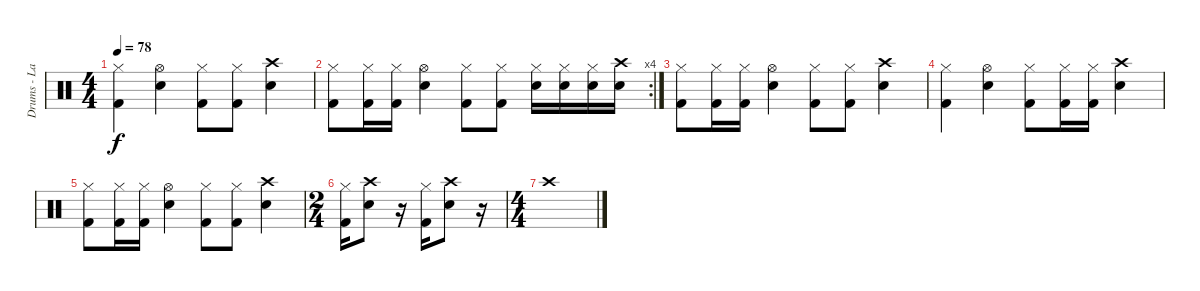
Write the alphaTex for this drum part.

\track ("Drums - Lars" "Drums - La") {instrument percussion}
\staff {score}
\articulation defaults
\ts (4 4)
\tempo 78
\clef neutral
\ks c
("Hi-Hat (closed)" "Kick (hit) 2").4{dy f} ("Hi-Hat (open)" "Electric Snare (hit)").4 ("Hi-Hat (closed)" "Kick (hit) 2").8 ("Hi-Hat (closed)" "Kick (hit) 2").8 ("Crash high (hit)" "Electric Snare (hit)").4 |
\rc 4
("Hi-Hat (closed)" "Kick (hit) 2").8 ("Hi-Hat (closed)" "Kick (hit) 2").16 ("Hi-Hat (closed)" "Kick (hit) 2").16 ("Hi-Hat (open)" "Electric Snare (hit)").4 ("Hi-Hat (closed)" "Kick (hit) 2").8 ("Hi-Hat (closed)" "Kick (hit) 2").8 ("Hi-Hat (closed)" "Electric Snare (hit)").16 ("Hi-Hat (closed)" "Electric Snare (hit)").16 ("Hi-Hat (closed)" "Electric Snare (hit)").16 ("Crash high (hit)" "Electric Snare (hit)").16 |
("Hi-Hat (closed)" "Kick (hit) 2").8 ("Hi-Hat (closed)" "Kick (hit) 2").16 ("Hi-Hat (closed)" "Kick (hit) 2").16 ("Hi-Hat (open)" "Electric Snare (hit)").4 ("Hi-Hat (closed)" "Kick (hit) 2").8 ("Hi-Hat (closed)" "Kick (hit) 2").8 ("Crash high (hit)" "Electric Snare (hit)").4 |
("Hi-Hat (closed)" "Kick (hit) 2").4 ("Hi-Hat (open)" "Electric Snare (hit)").4 ("Hi-Hat (closed)" "Kick (hit) 2").8 ("Hi-Hat (closed)" "Kick (hit) 2").16 ("Hi-Hat (closed)" "Kick (hit) 2").16 ("Crash high (hit)" "Electric Snare (hit)").4 |
("Hi-Hat (closed)" "Kick (hit) 2").8 ("Hi-Hat (closed)" "Kick (hit) 2").16 ("Hi-Hat (closed)" "Kick (hit) 2").16 ("Hi-Hat (open)" "Electric Snare (hit)").4 ("Hi-Hat (closed)" "Kick (hit) 2").8 ("Hi-Hat (closed)" "Kick (hit) 2").8 ("Crash high (hit)" "Electric Snare (hit)").4 |
\ts (2 4)
("Hi-Hat (closed)" "Kick (hit) 2").16 ("Crash high (hit)" "Electric Snare (hit)").8 r.16 ("Hi-Hat (closed)" "Kick (hit) 2").16 ("Crash high (hit)" "Electric Snare (hit)").8 r.16 |
\ts (4 4)
"Crash high (hit)".1
